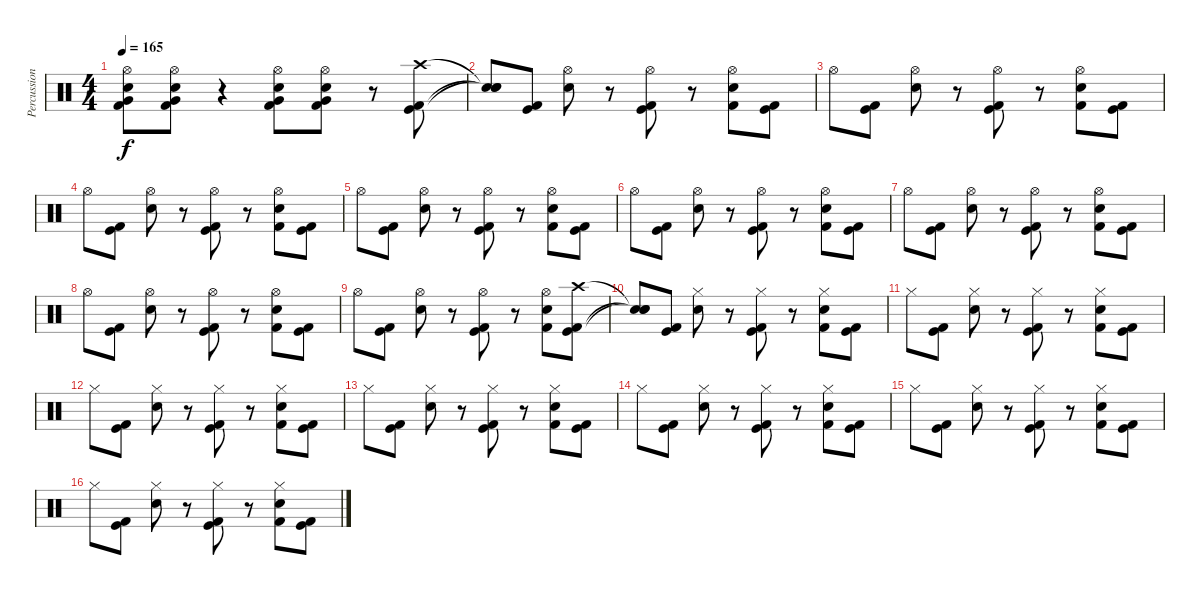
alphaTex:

\track ("Percussions" "Percussion") {instrument percussion}
\staff {score}
\articulation defaults
\ts (4 4)
\tempo 165
\clef neutral
\ks c
("Hi-Hat (open)" "Snare (hit) 2" "Very Low Tom (hit)" "Kick (hit) 2").8{dy f} ("Hi-Hat (open)" "Snare (hit) 2" "Very Low Tom (hit)" "Kick (hit) 2").8 r.4 ("Hi-Hat (open)" "Snare (hit) 2" "Very Low Tom (hit)" "Kick (hit) 2").8 ("Hi-Hat (open)" "Snare (hit) 2" "Very Low Tom (hit)" "Kick (hit) 2").8 r.8 ("Kick (hit) 2" "Kick (hit)" "Crash high (hit)").8 |
("Snare (hit)"{t} "Snare (hit)"{t} "Snare (hit)"{t}).8 ("Kick (hit) 2" "Kick (hit)").8 ("Snare (hit) 2" "Hi-Hat (open)").8 r.8 ("Kick (hit) 2" "Kick (hit)" "Hi-Hat (open)").8 r.8 ("Kick (hit) 2" "Snare (hit) 2" "Hi-Hat (open)").8 ("Kick (hit) 2" "Kick (hit)").8 |
"Hi-Hat (open)".8 ("Kick (hit) 2" "Kick (hit)").8 ("Snare (hit) 2" "Hi-Hat (open)").8 r.8 ("Kick (hit) 2" "Kick (hit)" "Hi-Hat (open)").8 r.8 ("Kick (hit) 2" "Snare (hit) 2" "Hi-Hat (open)").8 ("Kick (hit) 2" "Kick (hit)").8 |
"Hi-Hat (open)".8 ("Kick (hit) 2" "Kick (hit)").8 ("Snare (hit) 2" "Hi-Hat (open)").8 r.8 ("Kick (hit) 2" "Kick (hit)" "Hi-Hat (open)").8 r.8 ("Kick (hit) 2" "Snare (hit) 2" "Hi-Hat (open)").8 ("Kick (hit) 2" "Kick (hit)").8 |
"Hi-Hat (open)".8 ("Kick (hit) 2" "Kick (hit)").8 ("Snare (hit) 2" "Hi-Hat (open)").8 r.8 ("Kick (hit) 2" "Kick (hit)" "Hi-Hat (open)").8 r.8 ("Kick (hit) 2" "Snare (hit) 2" "Hi-Hat (open)").8 ("Kick (hit) 2" "Kick (hit)").8 |
"Hi-Hat (open)".8 ("Kick (hit) 2" "Kick (hit)").8 ("Snare (hit) 2" "Hi-Hat (open)").8 r.8 ("Kick (hit) 2" "Kick (hit)" "Hi-Hat (open)").8 r.8 ("Kick (hit) 2" "Snare (hit) 2" "Hi-Hat (open)").8 ("Kick (hit) 2" "Kick (hit)").8 |
"Hi-Hat (open)".8 ("Kick (hit) 2" "Kick (hit)").8 ("Snare (hit) 2" "Hi-Hat (open)").8 r.8 ("Kick (hit) 2" "Kick (hit)" "Hi-Hat (open)").8 r.8 ("Kick (hit) 2" "Snare (hit) 2" "Hi-Hat (open)").8 ("Kick (hit) 2" "Kick (hit)").8 |
"Hi-Hat (open)".8 ("Kick (hit) 2" "Kick (hit)").8 ("Snare (hit) 2" "Hi-Hat (open)").8 r.8 ("Kick (hit) 2" "Kick (hit)" "Hi-Hat (open)").8 r.8 ("Kick (hit) 2" "Snare (hit) 2" "Hi-Hat (open)").8 ("Kick (hit) 2" "Kick (hit)").8 |
"Hi-Hat (open)".8 ("Kick (hit) 2" "Kick (hit)").8 ("Snare (hit) 2" "Hi-Hat (open)").8 r.8 ("Kick (hit) 2" "Kick (hit)" "Hi-Hat (open)").8 r.8 ("Kick (hit) 2" "Snare (hit) 2" "Hi-Hat (open)").8 ("Kick (hit) 2" "Kick (hit)" "Crash high (hit)").8 |
("Snare (hit)"{t} "Snare (hit)"{t} "Snare (hit)"{t}).8 ("Kick (hit) 2" "Kick (hit)").8 ("Snare (hit) 2" "Hi-Hat (closed)").8 r.8 ("Kick (hit) 2" "Kick (hit)" "Hi-Hat (closed)").8 r.8 ("Kick (hit) 2" "Snare (hit) 2" "Hi-Hat (closed)").8 ("Kick (hit) 2" "Kick (hit)").8 |
"Hi-Hat (closed)".8 ("Kick (hit) 2" "Kick (hit)").8 ("Snare (hit) 2" "Hi-Hat (closed)").8 r.8 ("Kick (hit) 2" "Kick (hit)" "Hi-Hat (closed)").8 r.8 ("Kick (hit) 2" "Snare (hit) 2" "Hi-Hat (closed)").8 ("Kick (hit) 2" "Kick (hit)").8 |
"Hi-Hat (closed)".8 ("Kick (hit) 2" "Kick (hit)").8 ("Snare (hit) 2" "Hi-Hat (closed)").8 r.8 ("Kick (hit) 2" "Kick (hit)" "Hi-Hat (closed)").8 r.8 ("Kick (hit) 2" "Snare (hit) 2" "Hi-Hat (closed)").8 ("Kick (hit) 2" "Kick (hit)").8 |
"Hi-Hat (closed)".8 ("Kick (hit) 2" "Kick (hit)").8 ("Snare (hit) 2" "Hi-Hat (closed)").8 r.8 ("Kick (hit) 2" "Kick (hit)" "Hi-Hat (closed)").8 r.8 ("Kick (hit) 2" "Snare (hit) 2" "Hi-Hat (closed)").8 ("Kick (hit) 2" "Kick (hit)").8 |
"Hi-Hat (closed)".8 ("Kick (hit) 2" "Kick (hit)").8 ("Snare (hit) 2" "Hi-Hat (closed)").8 r.8 ("Kick (hit) 2" "Kick (hit)" "Hi-Hat (closed)").8 r.8 ("Kick (hit) 2" "Snare (hit) 2" "Hi-Hat (closed)").8 ("Kick (hit) 2" "Kick (hit)").8 |
"Hi-Hat (closed)".8 ("Kick (hit) 2" "Kick (hit)").8 ("Snare (hit) 2" "Hi-Hat (closed)").8 r.8 ("Kick (hit) 2" "Kick (hit)" "Hi-Hat (closed)").8 r.8 ("Kick (hit) 2" "Snare (hit) 2" "Hi-Hat (closed)").8 ("Kick (hit) 2" "Kick (hit)").8 |
"Hi-Hat (closed)".8 ("Kick (hit) 2" "Kick (hit)").8 ("Snare (hit) 2" "Hi-Hat (closed)").8 r.8 ("Kick (hit) 2" "Kick (hit)" "Hi-Hat (closed)").8 r.8 ("Kick (hit) 2" "Snare (hit) 2" "Hi-Hat (closed)").8 ("Kick (hit) 2" "Kick (hit)").8
